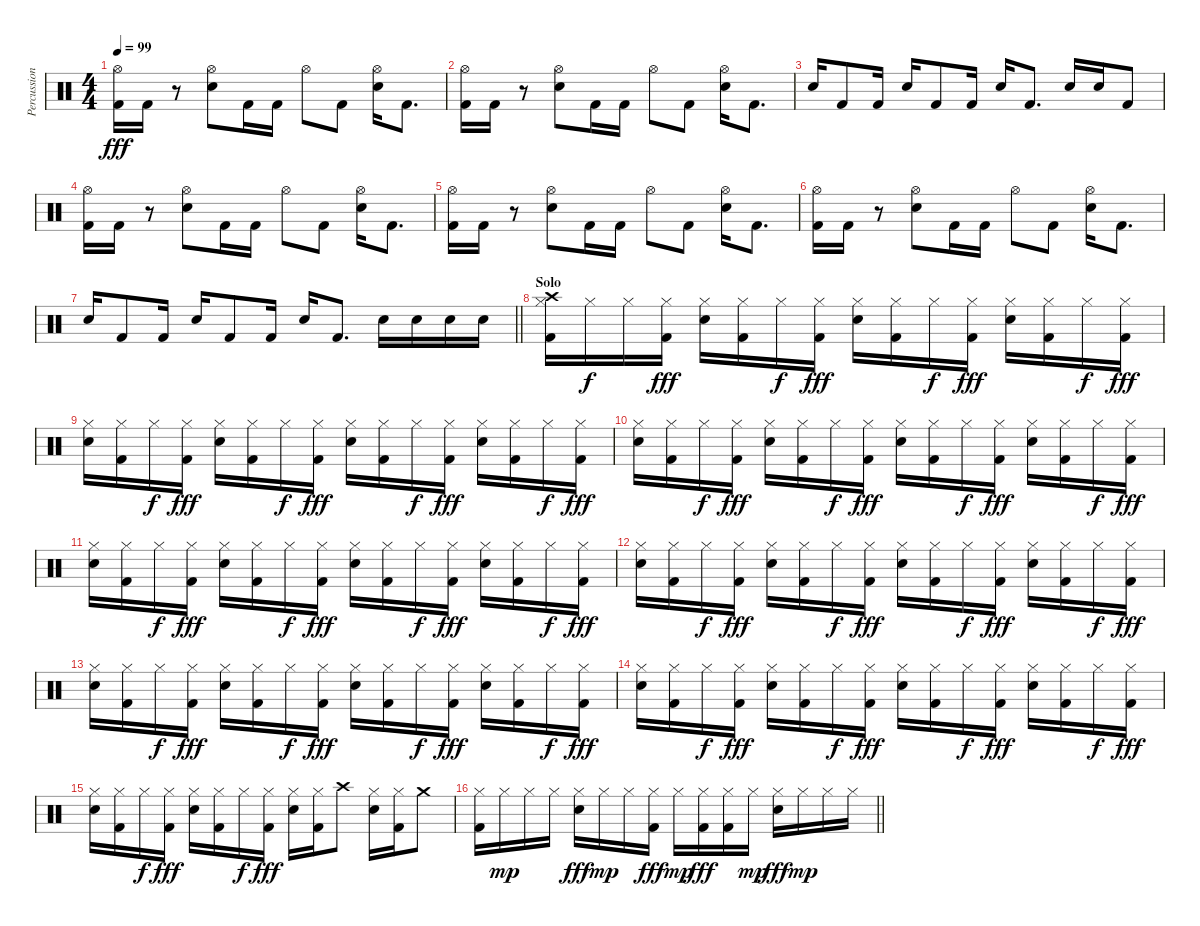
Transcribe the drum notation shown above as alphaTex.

\track ("Percussion" "Percussion") {instrument percussion}
\staff {score}
\articulation defaults
\ts (4 4)
\tempo 99
\clef neutral
\ks c
("Kick (hit) 2" "Hi-Hat (open)").16{dy fff} "Kick (hit) 2".16 r.8 ("Snare (hit) 2" "Hi-Hat (open)").8 "Kick (hit) 2".16 "Kick (hit) 2".16 "Hi-Hat (open)".8 "Kick (hit) 2".8 ("Snare (hit) 2" "Hi-Hat (open)").16 "Kick (hit) 2".8{d} |
("Kick (hit) 2" "Hi-Hat (open)").16 "Kick (hit) 2".16 r.8 ("Snare (hit) 2" "Hi-Hat (open)").8 "Kick (hit) 2".16 "Kick (hit) 2".16 "Hi-Hat (open)".8 "Kick (hit) 2".8 ("Snare (hit) 2" "Hi-Hat (open)").16 "Kick (hit) 2".8{d} |
"Snare (hit) 2".16 "Kick (hit) 2".8 "Kick (hit) 2".16 "Snare (hit) 2".16 "Kick (hit) 2".8 "Kick (hit) 2".16 "Snare (hit) 2".16 "Kick (hit) 2".8{d} "Snare (hit) 2".16 "Snare (hit) 2".16 "Kick (hit) 2".8 |
("Kick (hit) 2" "Hi-Hat (open)").16 "Kick (hit) 2".16 r.8 ("Snare (hit) 2" "Hi-Hat (open)").8 "Kick (hit) 2".16 "Kick (hit) 2".16 "Hi-Hat (open)".8 "Kick (hit) 2".8 ("Snare (hit) 2" "Hi-Hat (open)").16 "Kick (hit) 2".8{d} |
("Kick (hit) 2" "Hi-Hat (open)").16 "Kick (hit) 2".16 r.8 ("Snare (hit) 2" "Hi-Hat (open)").8 "Kick (hit) 2".16 "Kick (hit) 2".16 "Hi-Hat (open)".8 "Kick (hit) 2".8 ("Snare (hit) 2" "Hi-Hat (open)").16 "Kick (hit) 2".8{d} |
("Kick (hit) 2" "Hi-Hat (open)").16 "Kick (hit) 2".16 r.8 ("Snare (hit) 2" "Hi-Hat (open)").8 "Kick (hit) 2".16 "Kick (hit) 2".16 "Hi-Hat (open)".8 "Kick (hit) 2".8 ("Snare (hit) 2" "Hi-Hat (open)").16 "Kick (hit) 2".8{d} |
\barLineRight lightlight "Snare (hit) 2".16 "Kick (hit) 2".8 "Kick (hit) 2".16 "Snare (hit) 2".16 "Kick (hit) 2".8 "Kick (hit) 2".16 "Snare (hit) 2".16 "Kick (hit) 2".8{d} "Snare (hit) 2".16 "Snare (hit) 2".16 "Snare (hit) 2".16 "Snare (hit) 2".16
|
\section ("" "Solo")
("Crash high (hit)" "Kick (hit) 2" "Hi-Hat (closed)").16 "Hi-Hat (closed)".16{dy f} "Hi-Hat (closed)".16 ("Kick (hit) 2" "Hi-Hat (closed)").16{dy fff} ("Snare (hit) 2" "Hi-Hat (closed)").16 ("Kick (hit) 2" "Hi-Hat (closed)").16 "Hi-Hat (closed)".16{dy f} ("Kick (hit) 2" "Hi-Hat (closed)").16{dy fff} ("Snare (hit) 2" "Hi-Hat (closed)").16 ("Kick (hit) 2" "Hi-Hat (closed)").16 "Hi-Hat (closed)".16{dy f} ("Kick (hit) 2" "Hi-Hat (closed)").16{dy fff} ("Snare (hit) 2" "Hi-Hat (closed)").16 ("Kick (hit) 2" "Hi-Hat (closed)").16 "Hi-Hat (closed)".16{dy f} ("Kick (hit) 2" "Hi-Hat (closed)").16{dy fff} |
("Snare (hit) 2" "Hi-Hat (closed)").16 ("Kick (hit) 2" "Hi-Hat (closed)").16 "Hi-Hat (closed)".16{dy f} ("Kick (hit) 2" "Hi-Hat (closed)").16{dy fff} ("Snare (hit) 2" "Hi-Hat (closed)").16 ("Kick (hit) 2" "Hi-Hat (closed)").16 "Hi-Hat (closed)".16{dy f} ("Kick (hit) 2" "Hi-Hat (closed)").16{dy fff} ("Snare (hit) 2" "Hi-Hat (closed)").16 ("Kick (hit) 2" "Hi-Hat (closed)").16 "Hi-Hat (closed)".16{dy f} ("Kick (hit) 2" "Hi-Hat (closed)").16{dy fff} ("Snare (hit) 2" "Hi-Hat (closed)").16 ("Kick (hit) 2" "Hi-Hat (closed)").16 "Hi-Hat (closed)".16{dy f} ("Kick (hit) 2" "Hi-Hat (closed)").16{dy fff} |
("Snare (hit) 2" "Hi-Hat (closed)").16 ("Kick (hit) 2" "Hi-Hat (closed)").16 "Hi-Hat (closed)".16{dy f} ("Kick (hit) 2" "Hi-Hat (closed)").16{dy fff} ("Snare (hit) 2" "Hi-Hat (closed)").16 ("Kick (hit) 2" "Hi-Hat (closed)").16 "Hi-Hat (closed)".16{dy f} ("Kick (hit) 2" "Hi-Hat (closed)").16{dy fff} ("Snare (hit) 2" "Hi-Hat (closed)").16 ("Kick (hit) 2" "Hi-Hat (closed)").16 "Hi-Hat (closed)".16{dy f} ("Kick (hit) 2" "Hi-Hat (closed)").16{dy fff} ("Snare (hit) 2" "Hi-Hat (closed)").16 ("Kick (hit) 2" "Hi-Hat (closed)").16 "Hi-Hat (closed)".16{dy f} ("Kick (hit) 2" "Hi-Hat (closed)").16{dy fff} |
("Snare (hit) 2" "Hi-Hat (closed)").16 ("Kick (hit) 2" "Hi-Hat (closed)").16 "Hi-Hat (closed)".16{dy f} ("Kick (hit) 2" "Hi-Hat (closed)").16{dy fff} ("Snare (hit) 2" "Hi-Hat (closed)").16 ("Kick (hit) 2" "Hi-Hat (closed)").16 "Hi-Hat (closed)".16{dy f} ("Kick (hit) 2" "Hi-Hat (closed)").16{dy fff} ("Snare (hit) 2" "Hi-Hat (closed)").16 ("Kick (hit) 2" "Hi-Hat (closed)").16 "Hi-Hat (closed)".16{dy f} ("Kick (hit) 2" "Hi-Hat (closed)").16{dy fff} ("Snare (hit) 2" "Hi-Hat (closed)").16 ("Kick (hit) 2" "Hi-Hat (closed)").16 "Hi-Hat (closed)".16{dy f} ("Kick (hit) 2" "Hi-Hat (closed)").16{dy fff} |
("Snare (hit) 2" "Hi-Hat (closed)").16 ("Kick (hit) 2" "Hi-Hat (closed)").16 "Hi-Hat (closed)".16{dy f} ("Kick (hit) 2" "Hi-Hat (closed)").16{dy fff} ("Snare (hit) 2" "Hi-Hat (closed)").16 ("Kick (hit) 2" "Hi-Hat (closed)").16 "Hi-Hat (closed)".16{dy f} ("Kick (hit) 2" "Hi-Hat (closed)").16{dy fff} ("Snare (hit) 2" "Hi-Hat (closed)").16 ("Kick (hit) 2" "Hi-Hat (closed)").16 "Hi-Hat (closed)".16{dy f} ("Kick (hit) 2" "Hi-Hat (closed)").16{dy fff} ("Snare (hit) 2" "Hi-Hat (closed)").16 ("Kick (hit) 2" "Hi-Hat (closed)").16 "Hi-Hat (closed)".16{dy f} ("Kick (hit) 2" "Hi-Hat (closed)").16{dy fff} |
("Snare (hit) 2" "Hi-Hat (closed)").16 ("Kick (hit) 2" "Hi-Hat (closed)").16 "Hi-Hat (closed)".16{dy f} ("Kick (hit) 2" "Hi-Hat (closed)").16{dy fff} ("Snare (hit) 2" "Hi-Hat (closed)").16 ("Kick (hit) 2" "Hi-Hat (closed)").16 "Hi-Hat (closed)".16{dy f} ("Kick (hit) 2" "Hi-Hat (closed)").16{dy fff} ("Snare (hit) 2" "Hi-Hat (closed)").16 ("Kick (hit) 2" "Hi-Hat (closed)").16 "Hi-Hat (closed)".16{dy f} ("Kick (hit) 2" "Hi-Hat (closed)").16{dy fff} ("Snare (hit) 2" "Hi-Hat (closed)").16 ("Kick (hit) 2" "Hi-Hat (closed)").16 "Hi-Hat (closed)".16{dy f} ("Kick (hit) 2" "Hi-Hat (closed)").16{dy fff} |
("Snare (hit) 2" "Hi-Hat (closed)").16 ("Kick (hit) 2" "Hi-Hat (closed)").16 "Hi-Hat (closed)".16{dy f} ("Kick (hit) 2" "Hi-Hat (closed)").16{dy fff} ("Snare (hit) 2" "Hi-Hat (closed)").16 ("Kick (hit) 2" "Hi-Hat (closed)").16 "Hi-Hat (closed)".16{dy f} ("Kick (hit) 2" "Hi-Hat (closed)").16{dy fff} ("Snare (hit) 2" "Hi-Hat (closed)").16 ("Kick (hit) 2" "Hi-Hat (closed)").16 "Hi-Hat (closed)".16{dy f} ("Kick (hit) 2" "Hi-Hat (closed)").16{dy fff} ("Snare (hit) 2" "Hi-Hat (closed)").16 ("Kick (hit) 2" "Hi-Hat (closed)").16 "Hi-Hat (closed)".16{dy f} ("Kick (hit) 2" "Hi-Hat (closed)").16{dy fff} |
("Snare (hit) 2" "Hi-Hat (closed)").16 ("Kick (hit) 2" "Hi-Hat (closed)").16 "Hi-Hat (closed)".16{dy f} ("Kick (hit) 2" "Hi-Hat (closed)").16{dy fff} ("Snare (hit) 2" "Hi-Hat (closed)").16 ("Kick (hit) 2" "Hi-Hat (closed)").16 "Hi-Hat (closed)".16{dy f} ("Kick (hit) 2" "Hi-Hat (closed)").16{dy fff} ("Snare (hit) 2" "Hi-Hat (closed)").16 ("Kick (hit) 2" "Hi-Hat (closed)").16 "Crash high (hit)".8 ("Snare (hit) 2" "Hi-Hat (closed)").16 ("Kick (hit) 2" "Hi-Hat (closed)").16 "Crash medium (hit)".8 |
\barLineRight lightlight
("Hi-Hat (closed)" "Kick (hit) 2").16 "Hi-Hat (closed)".16{dy mp} "Hi-Hat (closed)".16 "Hi-Hat (closed)".16 ("Hi-Hat (closed)" "Snare (hit) 2").16{dy fff} "Hi-Hat (closed)".16{dy mp} "Hi-Hat (closed)".16 ("Hi-Hat (closed)" "Kick (hit) 2").16{dy fff} "Hi-Hat (closed)".16{dy mp} ("Hi-Hat (closed)" "Kick (hit) 2").16{dy fff} ("Hi-Hat (closed)" "Kick (hit) 2").16 "Hi-Hat (closed)".16{dy mp} ("Hi-Hat (closed)" "Snare (hit) 2").16{dy fff} "Hi-Hat (closed)".16{dy mp} "Hi-Hat (closed)".16 "Hi-Hat (closed)".16
